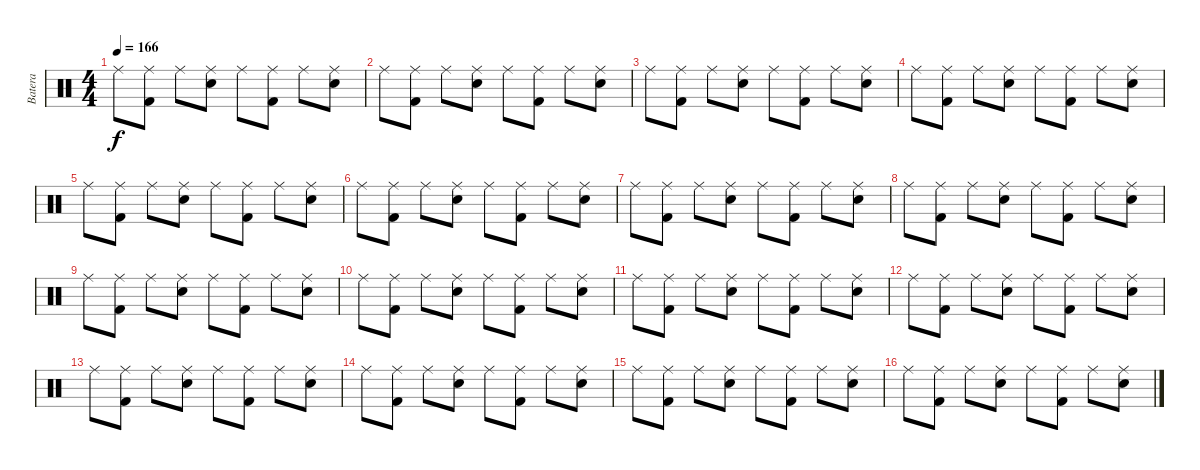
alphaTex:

\track ("Batera" "Batera") {instrument percussion}
\staff {score}
\articulation defaults
\ts (4 4)
\tempo 166
\clef neutral
\ks c "Ride (middle)".8{dy f}
("Ride (middle)" "Kick (hit) 2").8 "Ride (middle)".8 ("Ride (middle)" "Snare (hit) 2").8 "Ride (middle)".8 ("Ride (middle)" "Kick (hit) 2").8 "Ride (middle)".8 ("Ride (middle)" "Snare (hit) 2").8 |
"Ride (middle)".8 ("Ride (middle)" "Kick (hit) 2").8 "Ride (middle)".8 ("Ride (middle)" "Snare (hit) 2").8 "Ride (middle)".8 ("Ride (middle)" "Kick (hit) 2").8 "Ride (middle)".8 ("Ride (middle)" "Snare (hit) 2").8 |
"Ride (middle)".8 ("Ride (middle)" "Kick (hit) 2").8 "Ride (middle)".8 ("Ride (middle)" "Snare (hit) 2").8 "Ride (middle)".8 ("Ride (middle)" "Kick (hit) 2").8 "Ride (middle)".8 ("Ride (middle)" "Snare (hit) 2").8 |
"Ride (middle)".8 ("Ride (middle)" "Kick (hit) 2").8 "Ride (middle)".8 ("Ride (middle)" "Snare (hit) 2").8 "Ride (middle)".8 ("Ride (middle)" "Kick (hit) 2").8 "Ride (middle)".8 ("Ride (middle)" "Snare (hit) 2").8 |
"Ride (middle)".8 ("Ride (middle)" "Kick (hit) 2").8 "Ride (middle)".8 ("Ride (middle)" "Snare (hit) 2").8 "Ride (middle)".8 ("Ride (middle)" "Kick (hit) 2").8 "Ride (middle)".8 ("Ride (middle)" "Snare (hit) 2").8 |
"Ride (middle)".8 ("Ride (middle)" "Kick (hit) 2").8 "Ride (middle)".8 ("Ride (middle)" "Snare (hit) 2").8 "Ride (middle)".8 ("Ride (middle)" "Kick (hit) 2").8 "Ride (middle)".8 ("Ride (middle)" "Snare (hit) 2").8 |
"Ride (middle)".8 ("Ride (middle)" "Kick (hit) 2").8 "Ride (middle)".8 ("Ride (middle)" "Snare (hit) 2").8 "Ride (middle)".8 ("Ride (middle)" "Kick (hit) 2").8 "Ride (middle)".8 ("Ride (middle)" "Snare (hit) 2").8 |
"Ride (middle)".8 ("Ride (middle)" "Kick (hit) 2").8 "Ride (middle)".8 ("Ride (middle)" "Snare (hit) 2").8 "Ride (middle)".8 ("Ride (middle)" "Kick (hit) 2").8 "Ride (middle)".8 ("Ride (middle)" "Snare (hit) 2").8 |
"Ride (middle)".8 ("Ride (middle)" "Kick (hit) 2").8 "Ride (middle)".8 ("Ride (middle)" "Snare (hit) 2").8 "Ride (middle)".8 ("Ride (middle)" "Kick (hit) 2").8 "Ride (middle)".8 ("Ride (middle)" "Snare (hit) 2").8 |
"Ride (middle)".8 ("Ride (middle)" "Kick (hit) 2").8 "Ride (middle)".8 ("Ride (middle)" "Snare (hit) 2").8 "Ride (middle)".8 ("Ride (middle)" "Kick (hit) 2").8 "Ride (middle)".8 ("Ride (middle)" "Snare (hit) 2").8 |
"Ride (middle)".8 ("Ride (middle)" "Kick (hit) 2").8 "Ride (middle)".8 ("Ride (middle)" "Snare (hit) 2").8 "Ride (middle)".8 ("Ride (middle)" "Kick (hit) 2").8 "Ride (middle)".8 ("Ride (middle)" "Snare (hit) 2").8 |
"Ride (middle)".8 ("Ride (middle)" "Kick (hit) 2").8 "Ride (middle)".8 ("Ride (middle)" "Snare (hit) 2").8 "Ride (middle)".8 ("Ride (middle)" "Kick (hit) 2").8 "Ride (middle)".8 ("Ride (middle)" "Snare (hit) 2").8 |
"Ride (middle)".8 ("Ride (middle)" "Kick (hit) 2").8 "Ride (middle)".8 ("Ride (middle)" "Snare (hit) 2").8 "Ride (middle)".8 ("Ride (middle)" "Kick (hit) 2").8 "Ride (middle)".8 ("Ride (middle)" "Snare (hit) 2").8 |
"Ride (middle)".8 ("Ride (middle)" "Kick (hit) 2").8 "Ride (middle)".8 ("Ride (middle)" "Snare (hit) 2").8 "Ride (middle)".8 ("Ride (middle)" "Kick (hit) 2").8 "Ride (middle)".8 ("Ride (middle)" "Snare (hit) 2").8 |
"Ride (middle)".8 ("Ride (middle)" "Kick (hit) 2").8 "Ride (middle)".8 ("Ride (middle)" "Snare (hit) 2").8 "Ride (middle)".8 ("Ride (middle)" "Kick (hit) 2").8 "Ride (middle)".8 ("Ride (middle)" "Snare (hit) 2").8 |
"Ride (middle)".8 ("Ride (middle)" "Kick (hit) 2").8 "Ride (middle)".8 ("Ride (middle)" "Snare (hit) 2").8 "Ride (middle)".8 ("Ride (middle)" "Kick (hit) 2").8 "Ride (middle)".8 ("Ride (middle)" "Snare (hit) 2").8
